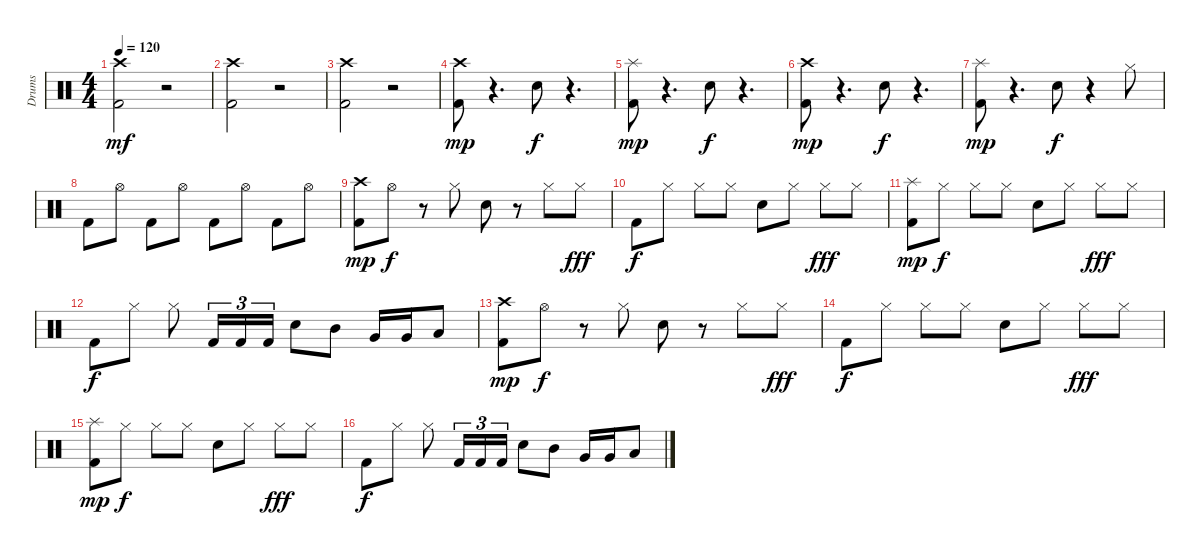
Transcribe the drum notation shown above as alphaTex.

\track ("Drums" "Drums") {instrument percussion}
\staff {score}
\articulation defaults
\ts (4 4)
\tempo 120
\clef neutral
\ks c
("Kick (hit) 2" "Crash high (hit)").2{dy mf} r.2 |
("Kick (hit) 2" "Crash high (hit)").2 r.2 |
("Kick (hit) 2" "Crash high (hit)").2 r.2 |
("Kick (hit) 2" "Crash high (hit)").8{dy mp} r.4{d} "Electric Snare (hit)".8{dy f} r.4{d} |
("Kick (hit) 2" "Splash (hit)").8{dy mp} r.4{d} "Electric Snare (hit)".8{dy f} r.4{d} |
("Kick (hit) 2" "Crash high (hit)").8{dy mp} r.4{d} "Electric Snare (hit)".8{dy f} r.4{d} |
("Kick (hit) 2" "Splash (hit)").8{dy mp} r.4{d} "Electric Snare (hit)".8{dy f} r.4 "Hi-Hat (closed)".8 |
"Kick (hit) 2".8 "Hi-Hat (open)".8 "Kick (hit) 2".8 "Hi-Hat (open)".8 "Kick (hit) 2".8 "Hi-Hat (open)".8 "Kick (hit) 2".8 "Hi-Hat (open)".8 |
("Kick (hit) 2" "Crash high (hit)").8{dy mp} "Hi-Hat (open)".8{dy f} r.8 "Hi-Hat (closed)".8 "Electric Snare (hit)".8 r.8 "Hi-Hat (closed)".8 "Hi-Hat (closed)".8{dy fff} |
"Kick (hit) 2".8{dy f} "Hi-Hat (closed)".8 "Hi-Hat (closed)".8 "Hi-Hat (closed)".8 "Electric Snare (hit)".8 "Hi-Hat (closed)".8 "Hi-Hat (closed)".8{dy fff} "Hi-Hat (closed)".8 |
("Kick (hit) 2" "Splash (hit)").8{dy mp} "Hi-Hat (closed)".8{dy f} "Hi-Hat (closed)".8 "Hi-Hat (closed)".8 "Electric Snare (hit)".8 "Hi-Hat (closed)".8 "Hi-Hat (closed)".8{dy fff} "Hi-Hat (closed)".8 |
"Kick (hit) 2".8{dy f} "Hi-Hat (closed)".8 "Hi-Hat (closed)".8 "Kick (hit) 2".16{tu (3 2)} "Kick (hit) 2".16{tu (3 2)} "Kick (hit) 2".16{tu (3 2)} "Electric Snare (hit)".8 "Mid Tom (hit)".8 "Very Low Tom (hit)".16 "Very Low Tom (hit)".16 "Low Tom (hit)".8 |
("Kick (hit) 2" "Crash high (hit)").8{dy mp} "Hi-Hat (open)".8{dy f} r.8 "Hi-Hat (closed)".8 "Electric Snare (hit)".8 r.8 "Hi-Hat (closed)".8 "Hi-Hat (closed)".8{dy fff} |
"Kick (hit) 2".8{dy f} "Hi-Hat (closed)".8 "Hi-Hat (closed)".8 "Hi-Hat (closed)".8 "Electric Snare (hit)".8 "Hi-Hat (closed)".8 "Hi-Hat (closed)".8{dy fff} "Hi-Hat (closed)".8 |
("Kick (hit) 2" "Splash (hit)").8{dy mp} "Hi-Hat (closed)".8{dy f} "Hi-Hat (closed)".8 "Hi-Hat (closed)".8 "Electric Snare (hit)".8 "Hi-Hat (closed)".8 "Hi-Hat (closed)".8{dy fff} "Hi-Hat (closed)".8 |
"Kick (hit) 2".8{dy f} "Hi-Hat (closed)".8 "Hi-Hat (closed)".8 "Kick (hit) 2".16{tu (3 2)} "Kick (hit) 2".16{tu (3 2)} "Kick (hit) 2".16{tu (3 2)} "Electric Snare (hit)".8 "Mid Tom (hit)".8 "Very Low Tom (hit)".16 "Very Low Tom (hit)".16 "Low Tom (hit)".8
